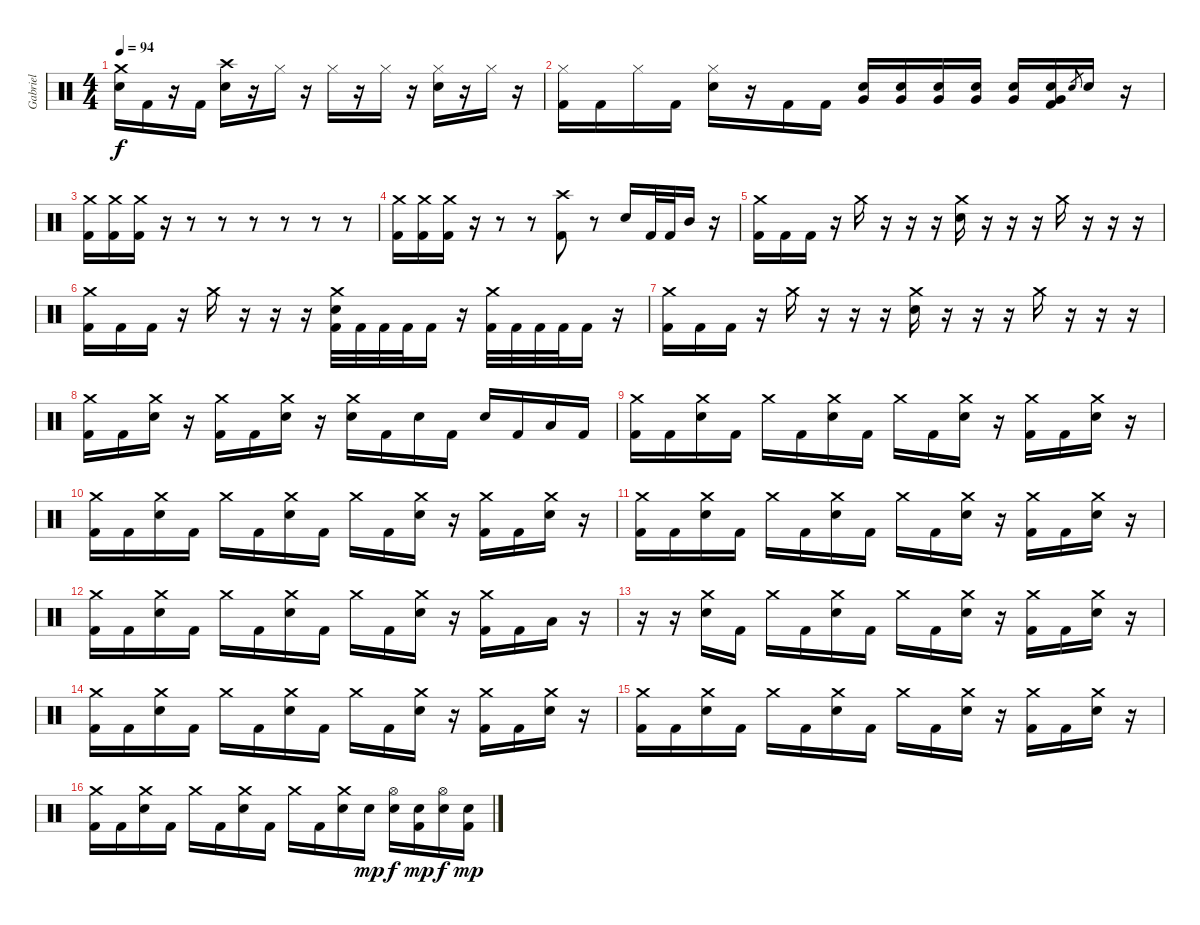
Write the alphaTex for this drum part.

\track ("Gabriel" "Gabriel") {instrument percussion}
\staff {score}
\articulation defaults
\ts (4 4)
\tempo 94
\clef neutral
\ks c
("Crash medium (hit)" "Electric Snare (hit)").16{dy f} "Kick (hit) 2".16 r.16 "Kick (hit) 2".16 ("Crash high (hit)" "Electric Snare (hit)").16 r.16 "Hi-Hat (closed)".16 r.16 "Hi-Hat (closed)".16 r.16 "Hi-Hat (closed)".16 r.16 ("Hi-Hat (closed)" "Electric Snare (hit)").16 r.16 "Hi-Hat (closed)".16 r.16 |
("Hi-Hat (closed)" "Kick (hit) 2").16 "Kick (hit) 2".16 "Hi-Hat (closed)".16 "Kick (hit) 2".16 ("Hi-Hat (closed)" "Electric Snare (hit)").16 r.16 "Kick (hit) 2".16 "Kick (hit) 2".16 ("Very Low Tom (hit)" "Electric Snare (hit)").16 ("Very Low Tom (hit)" "Electric Snare (hit)").16 ("Very Low Tom (hit)" "Electric Snare (hit)").16 ("Very Low Tom (hit)" "Electric Snare (hit)").16 ("Very Low Tom (hit)" "Electric Snare (hit)").16 ("Very Low Tom (hit)" "Electric Snare (hit)" "Kick (hit) 2").16 "Electric Snare (hit)".8{gr} "Electric Snare (hit)".16 r.16 |
("Crash medium (hit)" "Kick (hit) 2").16 ("Crash medium (hit)" "Kick (hit) 2").16 ("Crash medium (hit)" "Kick (hit) 2").16 r.16 r.8 r.8 r.8 r.8 r.8 r.8 |
("Crash medium (hit)" "Kick (hit) 2").16 ("Crash medium (hit)" "Kick (hit) 2").16 ("Crash medium (hit)" "Kick (hit) 2").16 r.16 r.8 r.8 ("Crash high (hit)" "Kick (hit) 2").8 r.8 "Electric Snare (hit)".16 "Kick (hit) 2".32 "Kick (hit) 2".32 "Mid Tom (hit)".16 r.16 |
("Crash medium (hit)" "Kick (hit) 2").16 "Kick (hit) 2".16 "Kick (hit) 2".16 r.16 "Crash medium (hit)".16 r.16 r.16 r.16 ("Crash medium (hit)" "Electric Snare (hit)").16 r.16 r.16 r.16 "Crash medium (hit)".16 r.16 r.16 r.16 |
("Crash medium (hit)" "Kick (hit) 2").16 "Kick (hit) 2".16 "Kick (hit) 2".16 r.16 "Crash medium (hit)".16 r.16 r.16 r.16 ("Crash medium (hit)" "Electric Snare (hit)" "Kick (hit) 2").32 "Kick (hit) 2".32 "Kick (hit) 2".32 "Kick (hit) 2".32 "Kick (hit) 2".16 r.16 ("Crash medium (hit)" "Kick (hit) 2").32 "Kick (hit) 2".32 "Kick (hit) 2".32 "Kick (hit) 2".32 "Kick (hit) 2".16 r.16 |
("Crash medium (hit)" "Kick (hit) 2").16 "Kick (hit) 2".16 "Kick (hit) 2".16 r.16 "Crash medium (hit)".16 r.16 r.16 r.16 ("Crash medium (hit)" "Electric Snare (hit)").16 r.16 r.16 r.16 "Crash medium (hit)".16 r.16 r.16 r.16 |
("Crash medium (hit)" "Kick (hit) 2").16 "Kick (hit) 2".16 ("Crash medium (hit)" "Electric Snare (hit)").16 r.16 ("Crash medium (hit)" "Kick (hit) 2").16 "Kick (hit) 2".16 ("Crash medium (hit)" "Electric Snare (hit)").16 r.16 ("Crash medium (hit)" "Electric Snare (hit)").16 "Kick (hit) 2".16 "Electric Snare (hit)".16 "Kick (hit) 2".16 "Electric Snare (hit)".16 "Kick (hit) 2".16 "Low Tom (hit)".16 "Kick (hit) 2".16 |
("Crash medium (hit)" "Kick (hit) 2").16 "Kick (hit) 2".16 ("Crash medium (hit)" "Electric Snare (hit)").16 "Kick (hit) 2".16 "Crash medium (hit)".16 "Kick (hit) 2".16 ("Crash medium (hit)" "Electric Snare (hit)").16 "Kick (hit) 2".16 "Crash medium (hit)".16 "Kick (hit) 2".16 ("Crash medium (hit)" "Electric Snare (hit)").16 r.16 ("Crash medium (hit)" "Kick (hit) 2").16 "Kick (hit) 2".16 ("Crash medium (hit)" "Electric Snare (hit)").16 r.16 |
("Crash medium (hit)" "Kick (hit) 2").16 "Kick (hit) 2".16 ("Crash medium (hit)" "Electric Snare (hit)").16 "Kick (hit) 2".16 "Crash medium (hit)".16 "Kick (hit) 2".16 ("Crash medium (hit)" "Electric Snare (hit)").16 "Kick (hit) 2".16 "Crash medium (hit)".16 "Kick (hit) 2".16 ("Crash medium (hit)" "Electric Snare (hit)").16 r.16 ("Crash medium (hit)" "Kick (hit) 2").16 "Kick (hit) 2".16 ("Crash medium (hit)" "Electric Snare (hit)").16 r.16 |
("Crash medium (hit)" "Kick (hit) 2").16 "Kick (hit) 2".16 ("Crash medium (hit)" "Electric Snare (hit)").16 "Kick (hit) 2".16 "Crash medium (hit)".16 "Kick (hit) 2".16 ("Crash medium (hit)" "Electric Snare (hit)").16 "Kick (hit) 2".16 "Crash medium (hit)".16 "Kick (hit) 2".16 ("Crash medium (hit)" "Electric Snare (hit)").16 r.16 ("Crash medium (hit)" "Kick (hit) 2").16 "Kick (hit) 2".16 ("Crash medium (hit)" "Electric Snare (hit)").16 r.16 |
("Crash medium (hit)" "Kick (hit) 2").16 "Kick (hit) 2".16 ("Crash medium (hit)" "Electric Snare (hit)").16 "Kick (hit) 2".16 "Crash medium (hit)".16 "Kick (hit) 2".16 ("Crash medium (hit)" "Electric Snare (hit)").16 "Kick (hit) 2".16 "Crash medium (hit)".16 "Kick (hit) 2".16 ("Crash medium (hit)" "Electric Snare (hit)").16 r.16 ("Crash medium (hit)" "Kick (hit) 2").16 "Kick (hit) 2".16 "Low Tom (hit)".16 r.16 |
r.16 r.16 ("Crash medium (hit)" "Electric Snare (hit)").16 "Kick (hit) 2".16 "Crash medium (hit)".16 "Kick (hit) 2".16 ("Crash medium (hit)" "Electric Snare (hit)").16 "Kick (hit) 2".16 "Crash medium (hit)".16 "Kick (hit) 2".16 ("Crash medium (hit)" "Electric Snare (hit)").16 r.16 ("Crash medium (hit)" "Kick (hit) 2").16 "Kick (hit) 2".16 ("Crash medium (hit)" "Electric Snare (hit)").16 r.16 |
("Crash medium (hit)" "Kick (hit) 2").16 "Kick (hit) 2".16 ("Crash medium (hit)" "Electric Snare (hit)").16 "Kick (hit) 2".16 "Crash medium (hit)".16 "Kick (hit) 2".16 ("Crash medium (hit)" "Electric Snare (hit)").16 "Kick (hit) 2".16 "Crash medium (hit)".16 "Kick (hit) 2".16 ("Crash medium (hit)" "Electric Snare (hit)").16 r.16 ("Crash medium (hit)" "Kick (hit) 2").16 "Kick (hit) 2".16 ("Crash medium (hit)" "Electric Snare (hit)").16 r.16 |
("Crash medium (hit)" "Kick (hit) 2").16 "Kick (hit) 2".16 ("Crash medium (hit)" "Electric Snare (hit)").16 "Kick (hit) 2".16 "Crash medium (hit)".16 "Kick (hit) 2".16 ("Crash medium (hit)" "Electric Snare (hit)").16 "Kick (hit) 2".16 "Crash medium (hit)".16 "Kick (hit) 2".16 ("Crash medium (hit)" "Electric Snare (hit)").16 r.16 ("Crash medium (hit)" "Kick (hit) 2").16 "Kick (hit) 2".16 ("Crash medium (hit)" "Electric Snare (hit)").16 r.16 |
("Crash medium (hit)" "Kick (hit) 2").16 "Kick (hit) 2".16 ("Crash medium (hit)" "Electric Snare (hit)").16 "Kick (hit) 2".16 "Crash medium (hit)".16 "Kick (hit) 2".16 ("Crash medium (hit)" "Electric Snare (hit)").16 "Kick (hit) 2".16 "Crash medium (hit)".16 "Kick (hit) 2".16 ("Crash medium (hit)" "Electric Snare (hit)").16 "Electric Snare (hit)".16{dy mp} ("Hi-Hat (open)" "Electric Snare (hit)").16{dy f} ("Electric Snare (hit)" "Kick (hit) 2").16{dy mp} ("Hi-Hat (open)" "Electric Snare (hit)").16{dy f} ("Electric Snare (hit)" "Kick (hit) 2").16{dy mp}
